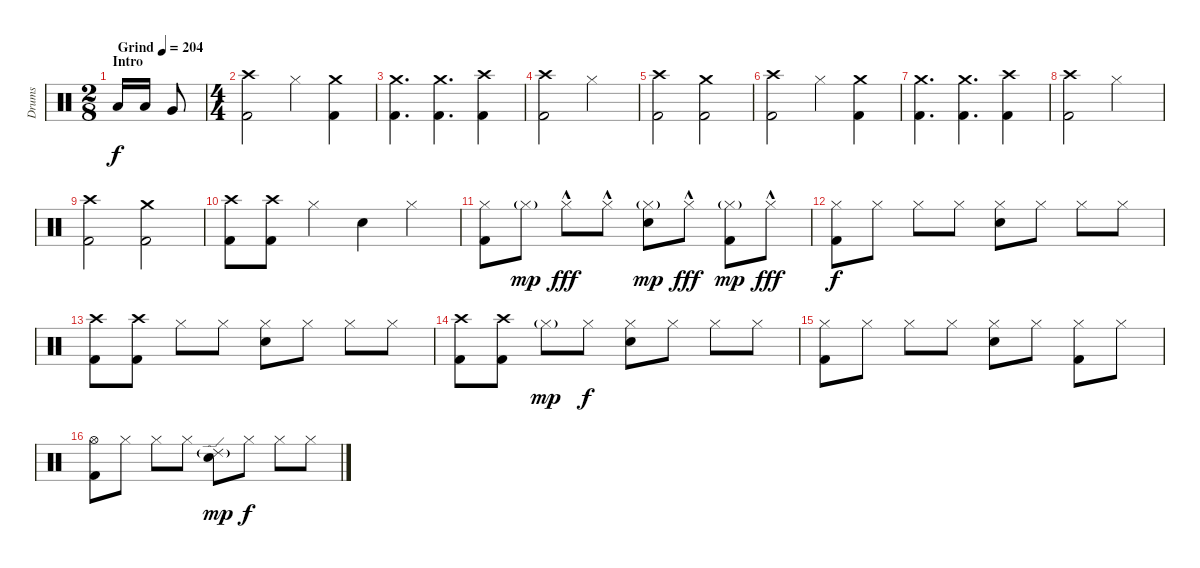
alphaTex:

\track ("Drums" "Drums") {instrument percussion}
\staff {score}
\articulation defaults
\ts (2 8)
\section ("" "Intro")
\tempo (204 "Grind")
\clef neutral
\ks c "Low Floor Tom (hit)".16{dy f} "Low Floor Tom (hit)".16 "Very Low Tom (hit)".8
|
\ts (4 4)
("Crash high (hit)" "Kick (hit) 2").2 "Hi-Hat (closed)".4 ("Crash medium (hit)" "Kick (hit) 2").4 |
("Crash medium (hit)" "Kick (hit) 2").4{d} ("Crash medium (hit)" "Kick (hit) 2").4{d} ("Crash high (hit)" "Kick (hit) 2").4 |
("Crash high (hit)" "Kick (hit) 2").2 "Hi-Hat (closed)".2 |
("Crash high (hit)" "Kick (hit) 2").2 ("Crash medium (hit)" "Kick (hit) 2").2 |
("Crash high (hit)" "Kick (hit) 2").2 "Hi-Hat (closed)".4 ("Crash medium (hit)" "Kick (hit) 2").4 |
("Crash medium (hit)" "Kick (hit) 2").4{d} ("Crash medium (hit)" "Kick (hit) 2").4{d} ("Crash high (hit)" "Kick (hit) 2").4 |
("Crash high (hit)" "Kick (hit) 2").2 "Hi-Hat (closed)".2 |
("Crash high (hit)" "Kick (hit) 2").2 ("Crash medium (hit)" "Kick (hit) 2").2 |
("Crash high (hit)" "Kick (hit) 2").8 ("Crash high (hit)" "Kick (hit) 2").8 "Hi-Hat (closed)".4 "Snare (hit) 2".4 "Hi-Hat (closed)".4 |
("Hi-Hat (closed)" "Kick (hit) 2").8 "Hi-Hat (closed)"{g}.8{dy mp} "Hi-Hat (closed)"{hac}.8{dy fff} "Hi-Hat (closed)"{hac}.8 ("Hi-Hat (closed)"{g} "Snare (hit) 2").8{dy mp} "Hi-Hat (closed)"{hac}.8{dy fff} ("Hi-Hat (closed)"{g} "Kick (hit) 2").8{dy mp} "Hi-Hat (closed)"{hac}.8{dy fff} |
("Hi-Hat (closed)" "Kick (hit) 2").8{dy f} "Hi-Hat (closed)".8 "Hi-Hat (closed)".8 "Hi-Hat (closed)".8 ("Hi-Hat (closed)" "Snare (hit) 2").8 "Hi-Hat (closed)".8 "Hi-Hat (closed)".8 "Hi-Hat (closed)".8 |
("Crash high (hit)" "Kick (hit) 2").8 ("Crash high (hit)" "Kick (hit) 2").8 "Hi-Hat (closed)".8 "Hi-Hat (closed)".8 ("Hi-Hat (closed)" "Snare (hit) 2").8 "Hi-Hat (closed)".8 "Hi-Hat (closed)".8 "Hi-Hat (closed)".8 |
("Crash high (hit)" "Kick (hit) 2").8 ("Crash high (hit)" "Kick (hit) 2").8 "Hi-Hat (closed)"{g}.8{dy mp} "Hi-Hat (closed)".8{dy f} ("Hi-Hat (closed)" "Snare (hit) 2").8 "Hi-Hat (closed)".8 "Hi-Hat (closed)".8 "Hi-Hat (closed)".8 |
("Hi-Hat (closed)" "Kick (hit) 2").8 "Hi-Hat (closed)".8 "Hi-Hat (closed)".8 "Hi-Hat (closed)".8 ("Hi-Hat (closed)" "Snare (hit) 2").8 "Hi-Hat (closed)".8 ("Hi-Hat (closed)" "Kick (hit) 2").8 "Hi-Hat (closed)".8 |
("Hi-Hat (open)" "Kick (hit) 2").8 "Hi-Hat (closed)".8 "Hi-Hat (closed)".8 "Hi-Hat (closed)".8 ("Ride (edge) 2"{g} "Snare (hit) 2").8{dy mp} "Hi-Hat (closed)".8{dy f} "Hi-Hat (closed)".8 "Hi-Hat (closed)".8
